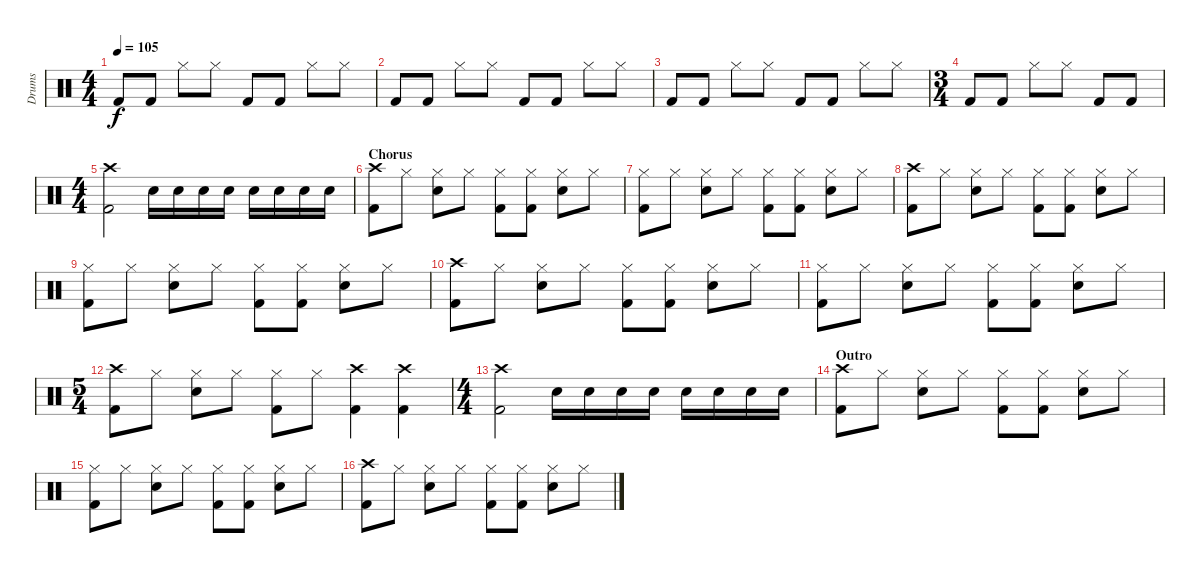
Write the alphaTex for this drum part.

\track ("Drums" "Drums") {instrument percussion}
\staff {score}
\articulation defaults
\ts (4 4)
\tempo 105
\clef neutral
\ks c "Kick (hit) 2".8{dy f} "Kick (hit) 2".8 "Hi-Hat (closed)".8 "Hi-Hat (closed)".8 "Kick (hit) 2".8 "Kick (hit) 2".8 "Hi-Hat (closed)".8 "Hi-Hat (closed)".8
|
"Kick (hit) 2".8 "Kick (hit) 2".8 "Hi-Hat (closed)".8 "Hi-Hat (closed)".8 "Kick (hit) 2".8 "Kick (hit) 2".8 "Hi-Hat (closed)".8 "Hi-Hat (closed)".8 |
"Kick (hit) 2".8 "Kick (hit) 2".8 "Hi-Hat (closed)".8 "Hi-Hat (closed)".8 "Kick (hit) 2".8 "Kick (hit) 2".8 "Hi-Hat (closed)".8 "Hi-Hat (closed)".8 |
\ts (3 4)
"Kick (hit) 2".8 "Kick (hit) 2".8 "Hi-Hat (closed)".8 "Hi-Hat (closed)".8 "Kick (hit) 2".8 "Kick (hit) 2".8 |
\ts (4 4)
("Crash high (hit)" "Kick (hit) 2").2 "Snare (hit) 2".16 "Snare (hit) 2".16 "Snare (hit) 2".16 "Snare (hit) 2".16 "Snare (hit) 2".16 "Snare (hit) 2".16 "Snare (hit) 2".16 "Snare (hit) 2".16 |
\section ("" "Chorus")
("Crash high (hit)" "Kick (hit) 2").8 "Hi-Hat (closed)".8 ("Hi-Hat (closed)" "Snare (hit) 2").8 "Hi-Hat (closed)".8 ("Hi-Hat (closed)" "Kick (hit) 2").8 ("Hi-Hat (closed)" "Kick (hit) 2").8 ("Hi-Hat (closed)" "Snare (hit) 2").8 "Hi-Hat (closed)".8 |
("Hi-Hat (closed)" "Kick (hit) 2").8 "Hi-Hat (closed)".8 ("Hi-Hat (closed)" "Snare (hit) 2").8 "Hi-Hat (closed)".8 ("Hi-Hat (closed)" "Kick (hit) 2").8 ("Hi-Hat (closed)" "Kick (hit) 2").8 ("Hi-Hat (closed)" "Snare (hit) 2").8 "Hi-Hat (closed)".8 |
("Crash high (hit)" "Kick (hit) 2").8 "Hi-Hat (closed)".8 ("Hi-Hat (closed)" "Snare (hit) 2").8 "Hi-Hat (closed)".8 ("Hi-Hat (closed)" "Kick (hit) 2").8 ("Hi-Hat (closed)" "Kick (hit) 2").8 ("Hi-Hat (closed)" "Snare (hit) 2").8 "Hi-Hat (closed)".8 |
("Hi-Hat (closed)" "Kick (hit) 2").8 "Hi-Hat (closed)".8 ("Hi-Hat (closed)" "Snare (hit) 2").8 "Hi-Hat (closed)".8 ("Hi-Hat (closed)" "Kick (hit) 2").8 ("Hi-Hat (closed)" "Kick (hit) 2").8 ("Hi-Hat (closed)" "Snare (hit) 2").8 "Hi-Hat (closed)".8 |
("Crash high (hit)" "Kick (hit) 2").8 "Hi-Hat (closed)".8 ("Hi-Hat (closed)" "Snare (hit) 2").8 "Hi-Hat (closed)".8 ("Hi-Hat (closed)" "Kick (hit) 2").8 ("Hi-Hat (closed)" "Kick (hit) 2").8 ("Hi-Hat (closed)" "Snare (hit) 2").8 "Hi-Hat (closed)".8 |
("Hi-Hat (closed)" "Kick (hit) 2").8 "Hi-Hat (closed)".8 ("Hi-Hat (closed)" "Snare (hit) 2").8 "Hi-Hat (closed)".8 ("Hi-Hat (closed)" "Kick (hit) 2").8 ("Hi-Hat (closed)" "Kick (hit) 2").8 ("Hi-Hat (closed)" "Snare (hit) 2").8 "Hi-Hat (closed)".8 |
\ts (5 4)
("Crash high (hit)" "Kick (hit) 2").8 "Hi-Hat (closed)".8 ("Hi-Hat (closed)" "Snare (hit) 2").8 "Hi-Hat (closed)".8 ("Hi-Hat (closed)" "Kick (hit) 2").8 "Hi-Hat (closed)".8 ("Crash high (hit)" "Kick (hit) 2").4 ("Crash high (hit)" "Kick (hit) 2").4 |
\ts (4 4)
("Crash high (hit)" "Kick (hit) 2").2 "Snare (hit) 2".16 "Snare (hit) 2".16 "Snare (hit) 2".16 "Snare (hit) 2".16 "Snare (hit) 2".16 "Snare (hit) 2".16 "Snare (hit) 2".16 "Snare (hit) 2".16 |
\section ("" "Outro")
("Crash high (hit)" "Kick (hit) 2").8 "Hi-Hat (closed)".8 ("Hi-Hat (closed)" "Snare (hit) 2").8 "Hi-Hat (closed)".8 ("Hi-Hat (closed)" "Kick (hit) 2").8 ("Hi-Hat (closed)" "Kick (hit) 2").8 ("Hi-Hat (closed)" "Snare (hit) 2").8 "Hi-Hat (closed)".8 |
("Hi-Hat (closed)" "Kick (hit) 2").8 "Hi-Hat (closed)".8 ("Hi-Hat (closed)" "Snare (hit) 2").8 "Hi-Hat (closed)".8 ("Hi-Hat (closed)" "Kick (hit) 2").8 ("Hi-Hat (closed)" "Kick (hit) 2").8 ("Hi-Hat (closed)" "Snare (hit) 2").8 "Hi-Hat (closed)".8 |
("Crash high (hit)" "Kick (hit) 2").8 "Hi-Hat (closed)".8 ("Hi-Hat (closed)" "Snare (hit) 2").8 "Hi-Hat (closed)".8 ("Hi-Hat (closed)" "Kick (hit) 2").8 ("Hi-Hat (closed)" "Kick (hit) 2").8 ("Hi-Hat (closed)" "Snare (hit) 2").8 "Hi-Hat (closed)".8
